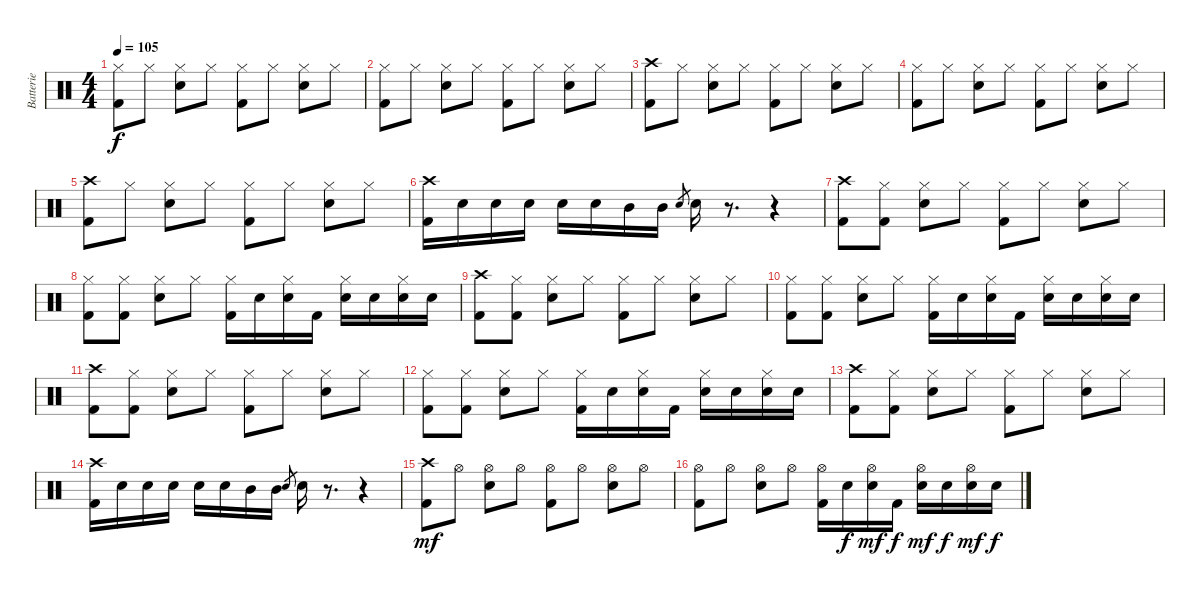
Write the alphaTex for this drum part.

\track ("Batterie" "Batterie") {instrument percussion}
\staff {score}
\articulation defaults
\ts (4 4)
\tempo 105
\clef neutral
\ks c
("Hi-Hat (closed)" "Kick (hit) 2").8{dy f} "Hi-Hat (closed)".8 ("Hi-Hat (closed)" "Electric Snare (hit)").8 "Hi-Hat (closed)".8 ("Hi-Hat (closed)" "Kick (hit) 2").8 "Hi-Hat (closed)".8 ("Hi-Hat (closed)" "Electric Snare (hit)").8 "Hi-Hat (closed)".8 |
("Hi-Hat (closed)" "Kick (hit) 2").8 "Hi-Hat (closed)".8 ("Hi-Hat (closed)" "Electric Snare (hit)").8 "Hi-Hat (closed)".8 ("Hi-Hat (closed)" "Kick (hit) 2").8 "Hi-Hat (closed)".8 ("Hi-Hat (closed)" "Electric Snare (hit)").8 "Hi-Hat (closed)".8 |
("Crash high (hit)" "Kick (hit) 2").8 "Hi-Hat (closed)".8 ("Hi-Hat (closed)" "Electric Snare (hit)").8 "Hi-Hat (closed)".8 ("Hi-Hat (closed)" "Kick (hit) 2").8 "Hi-Hat (closed)".8 ("Hi-Hat (closed)" "Electric Snare (hit)").8 "Hi-Hat (closed)".8 |
("Hi-Hat (closed)" "Kick (hit) 2").8 "Hi-Hat (closed)".8 ("Hi-Hat (closed)" "Electric Snare (hit)").8 "Hi-Hat (closed)".8 ("Hi-Hat (closed)" "Kick (hit) 2").8 "Hi-Hat (closed)".8 ("Hi-Hat (closed)" "Electric Snare (hit)").8 "Hi-Hat (closed)".8 |
("Crash high (hit)" "Kick (hit) 2").8 "Hi-Hat (closed)".8 ("Hi-Hat (closed)" "Electric Snare (hit)").8 "Hi-Hat (closed)".8 ("Hi-Hat (closed)" "Kick (hit) 2").8 "Hi-Hat (closed)".8 ("Hi-Hat (closed)" "Electric Snare (hit)").8 "Hi-Hat (closed)".8 |
("Crash high (hit)" "Kick (hit) 2").16 "Electric Snare (hit)".16 "Electric Snare (hit)".16 "Electric Snare (hit)".16 "Electric Snare (hit)".16 "Electric Snare (hit)".16 "Mid Tom (hit)".16 "Mid Tom (hit)".16 "Electric Snare (hit)".8{gr} "Electric Snare (hit)".16 r.8{d} r.4 |
("Crash high (hit)" "Kick (hit) 2").8 ("Hi-Hat (closed)" "Kick (hit) 2").8 ("Hi-Hat (closed)" "Electric Snare (hit)").8 "Hi-Hat (closed)".8 ("Hi-Hat (closed)" "Kick (hit) 2").8 "Hi-Hat (closed)".8 ("Hi-Hat (closed)" "Electric Snare (hit)").8 "Hi-Hat (closed)".8 |
("Hi-Hat (closed)" "Kick (hit) 2").8 ("Hi-Hat (closed)" "Kick (hit) 2").8 ("Hi-Hat (closed)" "Electric Snare (hit)").8 "Hi-Hat (closed)".8 ("Hi-Hat (closed)" "Kick (hit) 2").16 "Electric Snare (hit)".16 ("Hi-Hat (closed)" "Electric Snare (hit)").16 "Kick (hit) 2".16 ("Hi-Hat (closed)" "Electric Snare (hit)").16 "Electric Snare (hit)".16 ("Hi-Hat (closed)" "Electric Snare (hit)").16 "Electric Snare (hit)".16 |
("Crash high (hit)" "Kick (hit) 2").8 ("Hi-Hat (closed)" "Kick (hit) 2").8 ("Hi-Hat (closed)" "Electric Snare (hit)").8 "Hi-Hat (closed)".8 ("Hi-Hat (closed)" "Kick (hit) 2").8 "Hi-Hat (closed)".8 ("Hi-Hat (closed)" "Electric Snare (hit)").8 "Hi-Hat (closed)".8 |
("Hi-Hat (closed)" "Kick (hit) 2").8 ("Hi-Hat (closed)" "Kick (hit) 2").8 ("Hi-Hat (closed)" "Electric Snare (hit)").8 "Hi-Hat (closed)".8 ("Hi-Hat (closed)" "Kick (hit) 2").16 "Electric Snare (hit)".16 ("Hi-Hat (closed)" "Electric Snare (hit)").16 "Kick (hit) 2".16 ("Hi-Hat (closed)" "Electric Snare (hit)").16 "Electric Snare (hit)".16 ("Hi-Hat (closed)" "Electric Snare (hit)").16 "Electric Snare (hit)".16 |
("Crash high (hit)" "Kick (hit) 2").8 ("Hi-Hat (closed)" "Kick (hit) 2").8 ("Hi-Hat (closed)" "Electric Snare (hit)").8 "Hi-Hat (closed)".8 ("Hi-Hat (closed)" "Kick (hit) 2").8 "Hi-Hat (closed)".8 ("Hi-Hat (closed)" "Electric Snare (hit)").8 "Hi-Hat (closed)".8 |
("Hi-Hat (closed)" "Kick (hit) 2").8 ("Hi-Hat (closed)" "Kick (hit) 2").8 ("Hi-Hat (closed)" "Electric Snare (hit)").8 "Hi-Hat (closed)".8 ("Hi-Hat (closed)" "Kick (hit) 2").16 "Electric Snare (hit)".16 ("Hi-Hat (closed)" "Electric Snare (hit)").16 "Kick (hit) 2".16 ("Hi-Hat (closed)" "Electric Snare (hit)").16 "Electric Snare (hit)".16 ("Hi-Hat (closed)" "Electric Snare (hit)").16 "Electric Snare (hit)".16 |
("Crash high (hit)" "Kick (hit) 2").8 ("Hi-Hat (closed)" "Kick (hit) 2").8 ("Hi-Hat (closed)" "Electric Snare (hit)").8 "Hi-Hat (closed)".8 ("Hi-Hat (closed)" "Kick (hit) 2").8 "Hi-Hat (closed)".8 ("Hi-Hat (closed)" "Electric Snare (hit)").8 "Hi-Hat (closed)".8 |
("Crash high (hit)" "Kick (hit) 2").16 "Electric Snare (hit)".16 "Electric Snare (hit)".16 "Electric Snare (hit)".16 "Electric Snare (hit)".16 "Electric Snare (hit)".16 "Mid Tom (hit)".16 "Mid Tom (hit)".16 "Electric Snare (hit)".8{gr} "Electric Snare (hit)".16 r.8{d} r.4 |
("Crash high (hit)" "Kick (hit) 2").8{dy mf} "Hi-Hat (open)".8 ("Hi-Hat (open)" "Electric Snare (hit)").8 "Hi-Hat (open)".8 ("Hi-Hat (open)" "Kick (hit) 2").8 "Hi-Hat (open)".8 ("Hi-Hat (open)" "Electric Snare (hit)").8 "Hi-Hat (open)".8 |
("Hi-Hat (open)" "Kick (hit) 2").8 "Hi-Hat (open)".8 ("Hi-Hat (open)" "Electric Snare (hit)").8 "Hi-Hat (open)".8 ("Hi-Hat (open)" "Kick (hit) 2").16 "Electric Snare (hit)".16{dy f} ("Hi-Hat (open)" "Electric Snare (hit)").16{dy mf} "Kick (hit) 2".16{dy f} ("Hi-Hat (open)" "Electric Snare (hit)").16{dy mf} "Electric Snare (hit)".16{dy f} ("Hi-Hat (open)" "Electric Snare (hit)").16{dy mf} "Electric Snare (hit)".16{dy f}
